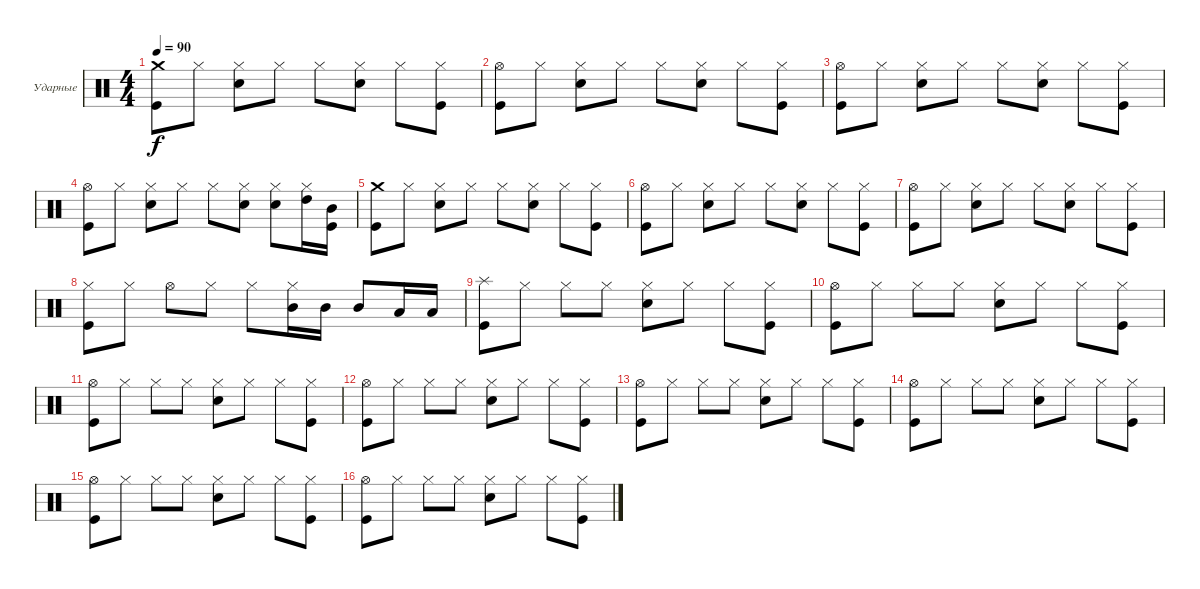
\defaultSystemsLayout 4
\bracketExtendMode groupsimilarinstruments
\firstSystemTrackNameOrientation horizontal
\otherSystemsTrackNameOrientation horizontal
\track ("Drums" "Ударные") {instrument percussion}
\staff {score}
\articulation defaults
\ts (4 4)
\tempo 90
\clef neutral
\ks c
("Crash medium (hit)" "Kick (hit)").8{dy f} "Hi-Hat (closed)".8 ("Hi-Hat (closed)" "Snare (hit) 2").8 "Hi-Hat (closed)".8 "Hi-Hat (closed)".8 ("Hi-Hat (closed)" "Snare (hit) 2").8 "Hi-Hat (closed)".8 ("Hi-Hat (closed)" "Kick (hit)").8 |
("Hi-Hat (open)" "Kick (hit)").8 "Hi-Hat (closed)".8 ("Hi-Hat (closed)" "Snare (hit) 2").8 "Hi-Hat (closed)".8 "Hi-Hat (closed)".8 ("Hi-Hat (closed)" "Snare (hit) 2").8 "Hi-Hat (closed)".8 ("Hi-Hat (closed)" "Kick (hit)").8 |
("Hi-Hat (open)" "Kick (hit)").8 "Hi-Hat (closed)".8 ("Hi-Hat (closed)" "Snare (hit) 2").8 "Hi-Hat (closed)".8 "Hi-Hat (closed)".8 ("Hi-Hat (closed)" "Snare (hit) 2").8 "Hi-Hat (closed)".8 ("Hi-Hat (closed)" "Kick (hit)").8 |
("Hi-Hat (open)" "Kick (hit)").8 "Hi-Hat (closed)".8 ("Hi-Hat (closed)" "Snare (hit) 2").8 "Hi-Hat (closed)".8 "Hi-Hat (closed)".8 ("Hi-Hat (closed)" "Snare (hit) 2").8 ("Hi-Hat (closed)" "Snare (hit) 2").8 ("Hi-Hat (closed)" "High Tom (hit)").16 ("Mid Tom (hit)" "Kick (hit)").16 |
("Crash medium (hit)" "Kick (hit)").8 "Hi-Hat (closed)".8 ("Hi-Hat (closed)" "Snare (hit) 2").8 "Hi-Hat (closed)".8 "Hi-Hat (closed)".8 ("Hi-Hat (closed)" "Snare (hit) 2").8 "Hi-Hat (closed)".8 ("Hi-Hat (closed)" "Kick (hit)").8 |
("Hi-Hat (open)" "Kick (hit)").8 "Hi-Hat (closed)".8 ("Hi-Hat (closed)" "Snare (hit) 2").8 "Hi-Hat (closed)".8 "Hi-Hat (closed)".8 ("Hi-Hat (closed)" "Snare (hit) 2").8 "Hi-Hat (closed)".8 ("Hi-Hat (closed)" "Kick (hit)").8 |
("Hi-Hat (open)" "Kick (hit)").8 "Hi-Hat (closed)".8 ("Hi-Hat (closed)" "Snare (hit) 2").8 "Hi-Hat (closed)".8 "Hi-Hat (closed)".8 ("Hi-Hat (closed)" "Snare (hit) 2").8 "Hi-Hat (closed)".8 ("Hi-Hat (closed)" "Kick (hit)").8 |
("Hi-Hat (closed)" "Kick (hit)").8 "Hi-Hat (closed)".8 "Hi-Hat (open)".8 "Hi-Hat (closed)".8 "Hi-Hat (closed)".8 ("Hi-Hat (closed)" "Mid Tom (hit)").16 "Mid Tom (hit)".16 "Mid Tom (hit)".8 "Low Tom (hit)".16 "Low Tom (hit)".16 |
("Kick (hit)" "Splash (hit)").8 "Hi-Hat (closed)".8 "Hi-Hat (closed)".8 "Hi-Hat (closed)".8 ("Hi-Hat (closed)" "Snare (hit) 2").8 "Hi-Hat (closed)".8 "Hi-Hat (closed)".8 ("Hi-Hat (closed)" "Kick (hit)").8 |
("Hi-Hat (open)" "Kick (hit)").8 "Hi-Hat (closed)".8 "Hi-Hat (closed)".8 "Hi-Hat (closed)".8 ("Hi-Hat (closed)" "Snare (hit) 2").8 "Hi-Hat (closed)".8 "Hi-Hat (closed)".8 ("Hi-Hat (closed)" "Kick (hit)").8 |
("Hi-Hat (open)" "Kick (hit)").8 "Hi-Hat (closed)".8 "Hi-Hat (closed)".8 "Hi-Hat (closed)".8 ("Hi-Hat (closed)" "Snare (hit) 2").8 "Hi-Hat (closed)".8 "Hi-Hat (closed)".8 ("Hi-Hat (closed)" "Kick (hit)").8 |
("Hi-Hat (open)" "Kick (hit)").8 "Hi-Hat (closed)".8 "Hi-Hat (closed)".8 "Hi-Hat (closed)".8 ("Hi-Hat (closed)" "Snare (hit) 2").8 "Hi-Hat (closed)".8 "Hi-Hat (closed)".8 ("Hi-Hat (closed)" "Kick (hit)").8 |
("Hi-Hat (open)" "Kick (hit)").8 "Hi-Hat (closed)".8 "Hi-Hat (closed)".8 "Hi-Hat (closed)".8 ("Hi-Hat (closed)" "Snare (hit) 2").8 "Hi-Hat (closed)".8 "Hi-Hat (closed)".8 ("Hi-Hat (closed)" "Kick (hit)").8 |
("Hi-Hat (open)" "Kick (hit)").8 "Hi-Hat (closed)".8 "Hi-Hat (closed)".8 "Hi-Hat (closed)".8 ("Hi-Hat (closed)" "Snare (hit) 2").8 "Hi-Hat (closed)".8 "Hi-Hat (closed)".8 ("Hi-Hat (closed)" "Kick (hit)").8 |
("Hi-Hat (open)" "Kick (hit)").8 "Hi-Hat (closed)".8 "Hi-Hat (closed)".8 "Hi-Hat (closed)".8 ("Hi-Hat (closed)" "Snare (hit) 2").8 "Hi-Hat (closed)".8 "Hi-Hat (closed)".8 ("Hi-Hat (closed)" "Kick (hit)").8 |
("Hi-Hat (open)" "Kick (hit)").8 "Hi-Hat (closed)".8 "Hi-Hat (closed)".8 "Hi-Hat (closed)".8 ("Hi-Hat (closed)" "Snare (hit) 2").8 "Hi-Hat (closed)".8 "Hi-Hat (closed)".8 ("Hi-Hat (closed)" "Kick (hit)").8
